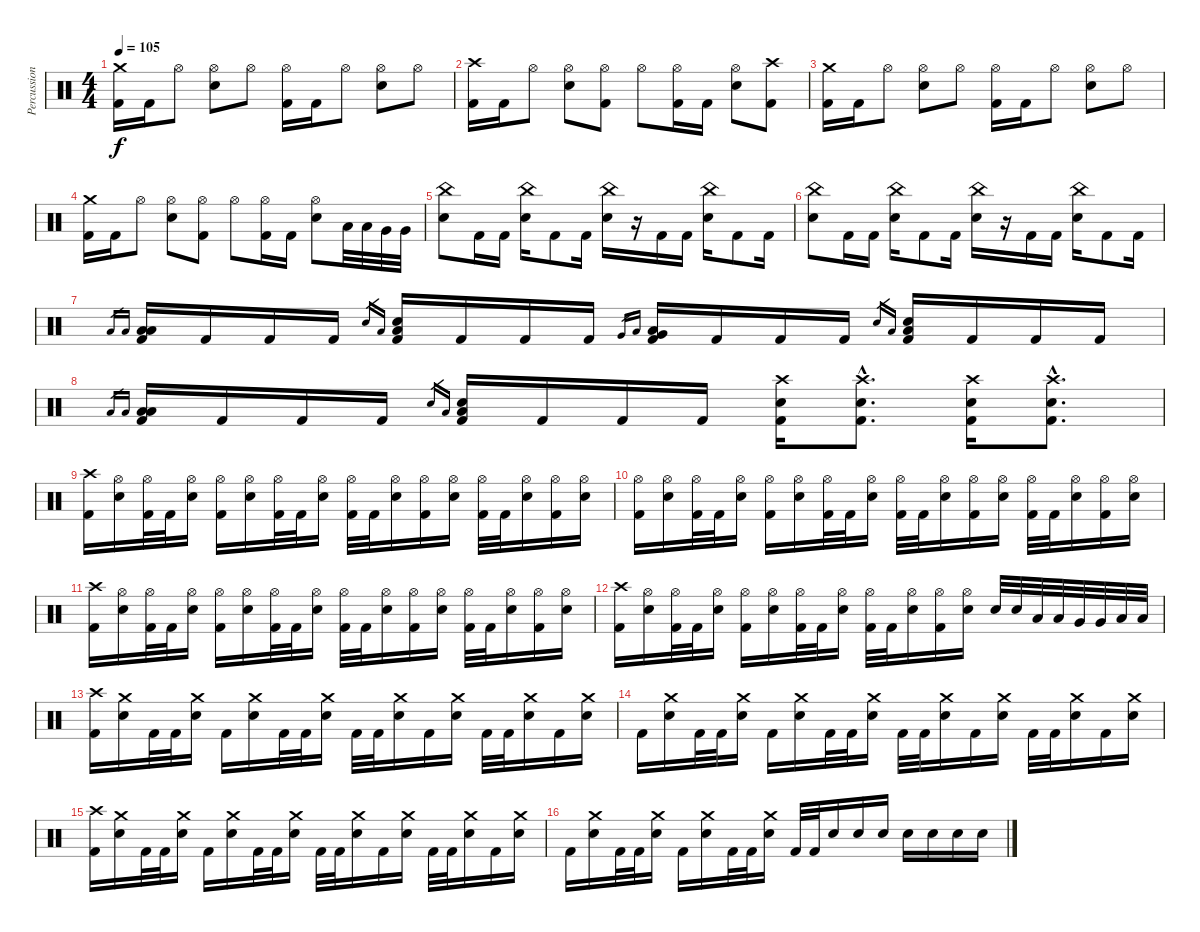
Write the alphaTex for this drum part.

\track ("Percussions" "Percussion") {instrument percussion}
\staff {score}
\articulation defaults
\ts (4 4)
\tempo 105
\clef neutral
\ks c
("Crash medium (hit)" "Kick (hit) 2").16{dy f} "Kick (hit) 2".16 "Hi-Hat (open)".8 ("Hi-Hat (open)" "Electric Snare (hit)").8 "Hi-Hat (open)".8 ("Hi-Hat (open)" "Kick (hit) 2").16 "Kick (hit) 2".16 "Hi-Hat (open)".8 ("Hi-Hat (open)" "Electric Snare (hit)").8 "Hi-Hat (open)".8 |
("Crash high (hit)" "Kick (hit) 2").16 "Kick (hit) 2".16 "Hi-Hat (open)".8 ("Hi-Hat (open)" "Electric Snare (hit)").8 ("Hi-Hat (open)" "Kick (hit) 2").8 "Hi-Hat (open)".8 ("Hi-Hat (open)" "Kick (hit) 2").16 "Kick (hit) 2".16 ("Hi-Hat (open)" "Electric Snare (hit)").8 ("Crash high (hit)" "Kick (hit) 2").8 |
("Crash medium (hit)" "Kick (hit) 2").16 "Kick (hit) 2".16 "Hi-Hat (open)".8 ("Hi-Hat (open)" "Electric Snare (hit)").8 "Hi-Hat (open)".8 ("Hi-Hat (open)" "Kick (hit) 2").16 "Kick (hit) 2".16 "Hi-Hat (open)".8 ("Hi-Hat (open)" "Electric Snare (hit)").8 "Hi-Hat (open)".8 |
("Crash medium (hit)" "Kick (hit) 2").16 "Kick (hit) 2".16 "Hi-Hat (open)".8 ("Hi-Hat (open)" "Electric Snare (hit)").8 ("Hi-Hat (open)" "Kick (hit) 2").8 "Hi-Hat (open)".8 ("Hi-Hat (open)" "Kick (hit) 2").16 "Kick (hit) 2".16 ("Hi-Hat (open)" "Electric Snare (hit)").8 "Low Tom (hit)".32 "Low Tom (hit)".32 "Very Low Tom (hit)".32 "Very Low Tom (hit)".32 |
("China (hit)" "Electric Snare (hit)").8 "Kick (hit) 2".16 "Kick (hit) 2".16 ("China (hit)" "Electric Snare (hit)").16 "Kick (hit) 2".8 "Kick (hit) 2".16 ("China (hit)" "Electric Snare (hit)").16 r.16 "Kick (hit) 2".16 "Kick (hit) 2".16 ("China (hit)" "Electric Snare (hit)").16 "Kick (hit) 2".8 "Kick (hit) 2".16 |
("China (hit)" "Electric Snare (hit)").8 "Kick (hit) 2".16 "Kick (hit) 2".16 ("China (hit)" "Electric Snare (hit)").16 "Kick (hit) 2".8 "Kick (hit) 2".16 ("China (hit)" "Electric Snare (hit)").16 r.16 "Kick (hit) 2".16 "Kick (hit) 2".16 ("China (hit)" "Electric Snare (hit)").16 "Kick (hit) 2".8 "Kick (hit) 2".16 |
"Low Tom (hit)".16{gr} "Low Floor Tom (hit)".16{gr} ("Low Tom (hit)" "Low Floor Tom (hit)" "Kick (hit) 2").16 "Kick (hit) 2".16 "Kick (hit) 2".16 "Kick (hit) 2".16 "Electric Snare (hit)".16{gr} "Low Floor Tom (hit)".16{gr} ("Electric Snare (hit)" "Low Floor Tom (hit)" "Kick (hit) 2").16 "Kick (hit) 2".16 "Kick (hit) 2".16 "Kick (hit) 2".16 "Very Low Tom (hit)".16{gr} "Low Floor Tom (hit)".16{gr} ("Very Low Tom (hit)" "Low Floor Tom (hit)" "Kick (hit) 2").16 "Kick (hit) 2".16 "Kick (hit) 2".16 "Kick (hit) 2".16 "Electric Snare (hit)".16{gr} "Low Floor Tom (hit)".16{gr} ("Electric Snare (hit)" "Low Floor Tom (hit)" "Kick (hit) 2").16 "Kick (hit) 2".16 "Kick (hit) 2".16 "Kick (hit) 2".16 |
"Low Tom (hit)".16{gr} "Low Floor Tom (hit)".16{gr} ("Low Tom (hit)" "Low Floor Tom (hit)" "Kick (hit) 2").16 "Kick (hit) 2".16 "Kick (hit) 2".16 "Kick (hit) 2".16 "Electric Snare (hit)".16{gr} "Low Floor Tom (hit)".16{gr} ("Electric Snare (hit)" "Low Floor Tom (hit)" "Kick (hit) 2").16 "Kick (hit) 2".16 "Kick (hit) 2".16 "Kick (hit) 2".16 ("Crash high (hit)" "Electric Snare (hit)" "Kick (hit) 2").16 ("Crash high (hit)"{hac} "Electric Snare (hit)"{hac} "Kick (hit) 2"{hac}).8{d} ("Crash high (hit)" "Electric Snare (hit)" "Kick (hit) 2").16 ("Crash high (hit)"{hac} "Electric Snare (hit)"{hac} "Kick (hit) 2"{hac}).8{d} |
("Crash high (hit)" "Kick (hit) 2").16 ("Hi-Hat (open)" "Electric Snare (hit)").16 ("Hi-Hat (open)" "Kick (hit) 2").32 "Kick (hit) 2".32 ("Hi-Hat (open)" "Electric Snare (hit)").16 ("Hi-Hat (open)" "Kick (hit) 2").16 ("Hi-Hat (open)" "Electric Snare (hit)").16 ("Hi-Hat (open)" "Kick (hit) 2").32 "Kick (hit) 2".32 ("Hi-Hat (open)" "Electric Snare (hit)").16 ("Hi-Hat (open)" "Kick (hit) 2").32 "Kick (hit) 2".32 ("Hi-Hat (open)" "Electric Snare (hit)").16 ("Hi-Hat (open)" "Kick (hit) 2").16 ("Hi-Hat (open)" "Electric Snare (hit)").16 ("Hi-Hat (open)" "Kick (hit) 2").32 "Kick (hit) 2".32 ("Hi-Hat (open)" "Electric Snare (hit)").16 ("Hi-Hat (open)" "Kick (hit) 2").16 ("Hi-Hat (open)" "Electric Snare (hit)").16 |
("Hi-Hat (open)" "Kick (hit) 2").16 ("Hi-Hat (open)" "Electric Snare (hit)").16 ("Hi-Hat (open)" "Kick (hit) 2").32 "Kick (hit) 2".32 ("Hi-Hat (open)" "Electric Snare (hit)").16 ("Hi-Hat (open)" "Kick (hit) 2").16 ("Hi-Hat (open)" "Electric Snare (hit)").16 ("Hi-Hat (open)" "Kick (hit) 2").32 "Kick (hit) 2".32 ("Hi-Hat (open)" "Electric Snare (hit)").16 ("Hi-Hat (open)" "Kick (hit) 2").32 "Kick (hit) 2".32 ("Hi-Hat (open)" "Electric Snare (hit)").16 ("Hi-Hat (open)" "Kick (hit) 2").16 ("Hi-Hat (open)" "Electric Snare (hit)").16 ("Hi-Hat (open)" "Kick (hit) 2").32 "Kick (hit) 2".32 ("Hi-Hat (open)" "Electric Snare (hit)").16 ("Hi-Hat (open)" "Kick (hit) 2").16 ("Hi-Hat (open)" "Electric Snare (hit)").16 |
("Crash high (hit)" "Kick (hit) 2").16 ("Hi-Hat (open)" "Electric Snare (hit)").16 ("Hi-Hat (open)" "Kick (hit) 2").32 "Kick (hit) 2".32 ("Hi-Hat (open)" "Electric Snare (hit)").16 ("Hi-Hat (open)" "Kick (hit) 2").16 ("Hi-Hat (open)" "Electric Snare (hit)").16 ("Hi-Hat (open)" "Kick (hit) 2").32 "Kick (hit) 2".32 ("Hi-Hat (open)" "Electric Snare (hit)").16 ("Hi-Hat (open)" "Kick (hit) 2").32 "Kick (hit) 2".32 ("Hi-Hat (open)" "Electric Snare (hit)").16 ("Hi-Hat (open)" "Kick (hit) 2").16 ("Hi-Hat (open)" "Electric Snare (hit)").16 ("Hi-Hat (open)" "Kick (hit) 2").32 "Kick (hit) 2".32 ("Hi-Hat (open)" "Electric Snare (hit)").16 ("Hi-Hat (open)" "Kick (hit) 2").16 ("Hi-Hat (open)" "Electric Snare (hit)").16 |
("Crash high (hit)" "Kick (hit) 2").16 ("Hi-Hat (open)" "Electric Snare (hit)").16 ("Hi-Hat (open)" "Kick (hit) 2").32 "Kick (hit) 2".32 ("Hi-Hat (open)" "Electric Snare (hit)").16 ("Hi-Hat (open)" "Kick (hit) 2").16 ("Hi-Hat (open)" "Electric Snare (hit)").16 ("Hi-Hat (open)" "Kick (hit) 2").32 "Kick (hit) 2".32 ("Hi-Hat (open)" "Electric Snare (hit)").16 ("Hi-Hat (open)" "Kick (hit) 2").32 "Kick (hit) 2".32 ("Hi-Hat (open)" "Electric Snare (hit)").16 ("Hi-Hat (open)" "Kick (hit) 2").16 ("Hi-Hat (open)" "Electric Snare (hit)").16 "Electric Snare (hit)".32 "Electric Snare (hit)".32 "Low Tom (hit)".32 "Low Tom (hit)".32 "Very Low Tom (hit)".32 "Very Low Tom (hit)".32 "Low Floor Tom (hit)".32 "Low Floor Tom (hit)".32 |
("Crash high (hit)" "Kick (hit) 2").16 ("Crash medium (hit)" "Electric Snare (hit)").16 "Kick (hit) 2".32 "Kick (hit) 2".32 ("Crash medium (hit)" "Electric Snare (hit)").16 "Kick (hit) 2".16 ("Crash medium (hit)" "Electric Snare (hit)").16 "Kick (hit) 2".32 "Kick (hit) 2".32 ("Crash medium (hit)" "Electric Snare (hit)").16 "Kick (hit) 2".32 "Kick (hit) 2".32 ("Crash medium (hit)" "Electric Snare (hit)").16 "Kick (hit) 2".16 ("Crash medium (hit)" "Electric Snare (hit)").16 "Kick (hit) 2".32 "Kick (hit) 2".32 ("Crash medium (hit)" "Electric Snare (hit)").16 "Kick (hit) 2".16 ("Crash medium (hit)" "Electric Snare (hit)").16 |
"Kick (hit) 2".16 ("Crash medium (hit)" "Electric Snare (hit)").16 "Kick (hit) 2".32 "Kick (hit) 2".32 ("Crash medium (hit)" "Electric Snare (hit)").16 "Kick (hit) 2".16 ("Crash medium (hit)" "Electric Snare (hit)").16 "Kick (hit) 2".32 "Kick (hit) 2".32 ("Crash medium (hit)" "Electric Snare (hit)").16 "Kick (hit) 2".32 "Kick (hit) 2".32 ("Crash medium (hit)" "Electric Snare (hit)").16 "Kick (hit) 2".16 ("Crash medium (hit)" "Electric Snare (hit)").16 "Kick (hit) 2".32 "Kick (hit) 2".32 ("Crash medium (hit)" "Electric Snare (hit)").16 "Kick (hit) 2".16 ("Crash medium (hit)" "Electric Snare (hit)").16 |
("Crash high (hit)" "Kick (hit) 2").16 ("Crash medium (hit)" "Electric Snare (hit)").16 "Kick (hit) 2".32 "Kick (hit) 2".32 ("Crash medium (hit)" "Electric Snare (hit)").16 "Kick (hit) 2".16 ("Crash medium (hit)" "Electric Snare (hit)").16 "Kick (hit) 2".32 "Kick (hit) 2".32 ("Crash medium (hit)" "Electric Snare (hit)").16 "Kick (hit) 2".32 "Kick (hit) 2".32 ("Crash medium (hit)" "Electric Snare (hit)").16 "Kick (hit) 2".16 ("Crash medium (hit)" "Electric Snare (hit)").16 "Kick (hit) 2".32 "Kick (hit) 2".32 ("Crash medium (hit)" "Electric Snare (hit)").16 "Kick (hit) 2".16 ("Crash medium (hit)" "Electric Snare (hit)").16 |
"Kick (hit) 2".16 ("Crash medium (hit)" "Electric Snare (hit)").16 "Kick (hit) 2".32 "Kick (hit) 2".32 ("Crash medium (hit)" "Electric Snare (hit)").16 "Kick (hit) 2".16 ("Crash medium (hit)" "Electric Snare (hit)").16 "Kick (hit) 2".32 "Kick (hit) 2".32 ("Crash medium (hit)" "Electric Snare (hit)").16 "Kick (hit) 2".32 "Kick (hit) 2".32 "Electric Snare (hit)".16 "Electric Snare (hit)".16 "Electric Snare (hit)".16 "Electric Snare (hit)".16 "Electric Snare (hit)".16 "Electric Snare (hit)".16 "Electric Snare (hit)".16
